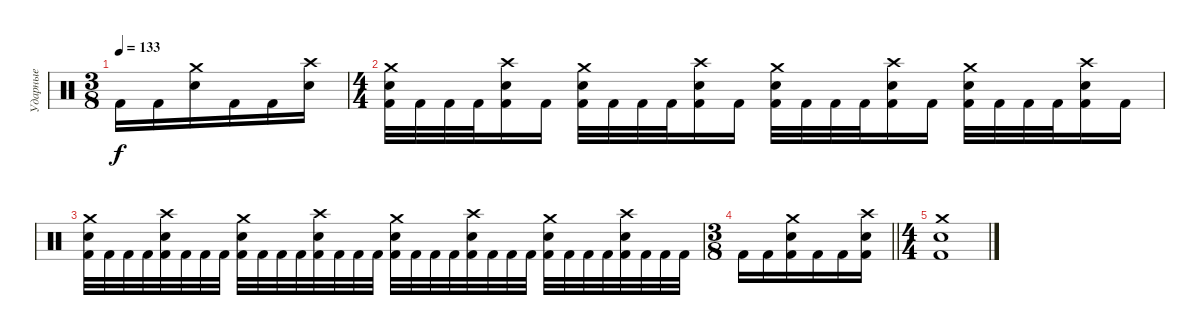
\track ("Ударные" "Ударные") {instrument percussion}
\staff {score}
\articulation defaults
\ts (3 8)
\tempo 133
\clef neutral
\ks c "Kick (hit) 2".16{dy f} "Kick (hit) 2".16
("Crash medium (hit)" "Snare (hit) 2").16 "Kick (hit) 2".16 "Kick (hit) 2".16 ("Crash high (hit)" "Snare (hit) 2").16 |
\ts (4 4)
("Crash medium (hit)" "Snare (hit) 2" "Kick (hit) 2").32 "Kick (hit) 2".32 "Kick (hit) 2".32 "Kick (hit) 2".32 ("Crash high (hit)" "Snare (hit) 2" "Kick (hit) 2").16 "Kick (hit) 2".16 ("Crash medium (hit)" "Snare (hit) 2" "Kick (hit) 2").32 "Kick (hit) 2".32 "Kick (hit) 2".32 "Kick (hit) 2".32 ("Crash high (hit)" "Snare (hit) 2" "Kick (hit) 2").16 "Kick (hit) 2".16 ("Crash medium (hit)" "Snare (hit) 2" "Kick (hit) 2").32 "Kick (hit) 2".32 "Kick (hit) 2".32 "Kick (hit) 2".32 ("Crash high (hit)" "Snare (hit) 2" "Kick (hit) 2").16 "Kick (hit) 2".16 ("Crash medium (hit)" "Snare (hit) 2" "Kick (hit) 2").32 "Kick (hit) 2".32 "Kick (hit) 2".32 "Kick (hit) 2".32 ("Crash high (hit)" "Snare (hit) 2" "Kick (hit) 2").16 "Kick (hit) 2".16 |
("Crash medium (hit)" "Snare (hit) 2" "Kick (hit) 2").32 "Kick (hit) 2".32 "Kick (hit) 2".32 "Kick (hit) 2".32 ("Crash high (hit)" "Snare (hit) 2" "Kick (hit) 2").32 "Kick (hit) 2".32 "Kick (hit) 2".32 "Kick (hit) 2".32 ("Crash medium (hit)" "Snare (hit) 2" "Kick (hit) 2").32 "Kick (hit) 2".32 "Kick (hit) 2".32 "Kick (hit) 2".32 ("Crash high (hit)" "Snare (hit) 2" "Kick (hit) 2").32 "Kick (hit) 2".32 "Kick (hit) 2".32 "Kick (hit) 2".32 ("Crash medium (hit)" "Snare (hit) 2" "Kick (hit) 2").32 "Kick (hit) 2".32 "Kick (hit) 2".32 "Kick (hit) 2".32 ("Crash high (hit)" "Snare (hit) 2" "Kick (hit) 2").32 "Kick (hit) 2".32 "Kick (hit) 2".32 "Kick (hit) 2".32 ("Crash medium (hit)" "Snare (hit) 2" "Kick (hit) 2").32 "Kick (hit) 2".32 "Kick (hit) 2".32 "Kick (hit) 2".32 ("Crash high (hit)" "Snare (hit) 2" "Kick (hit) 2").32 "Kick (hit) 2".32 "Kick (hit) 2".32 "Kick (hit) 2".32 |
\ts (3 8)
\barLineRight lightlight "Kick (hit) 2".16 "Kick (hit) 2".16
("Crash medium (hit)" "Snare (hit) 2" "Kick (hit) 2").16 "Kick (hit) 2".16 "Kick (hit) 2".16 ("Crash high (hit)" "Snare (hit) 2" "Kick (hit) 2").16 |
\ts (4 4)
("Crash medium (hit)" "Snare (hit) 2" "Kick (hit) 2").1
